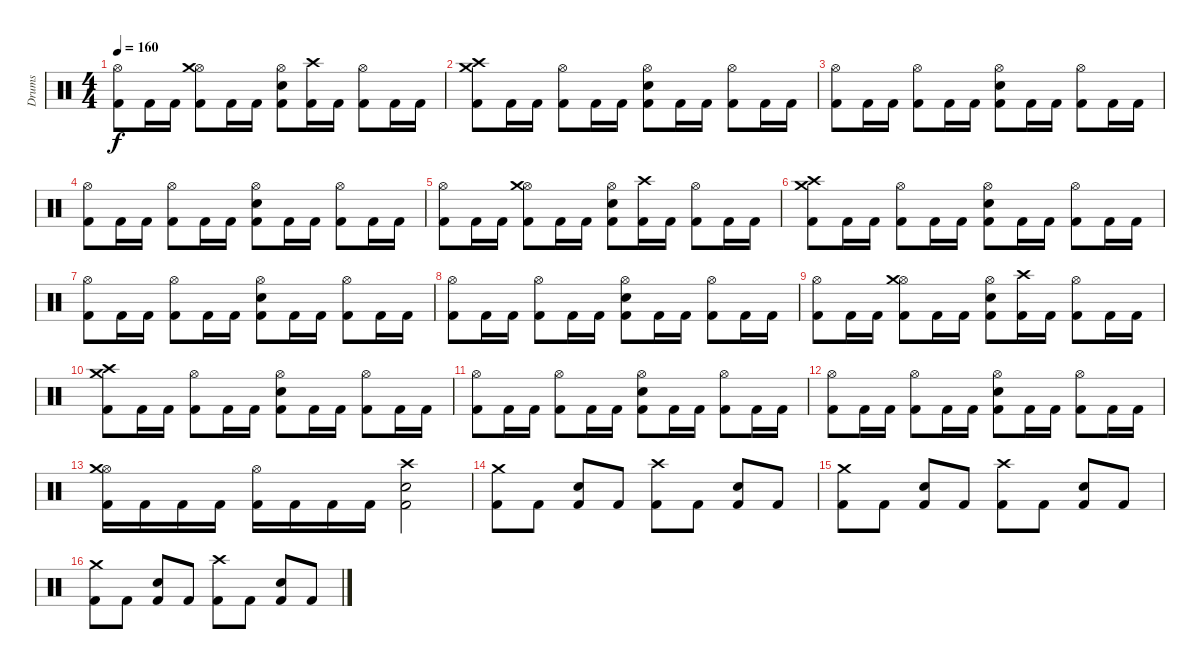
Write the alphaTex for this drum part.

\track ("Drums" "Drums") {instrument percussion}
\staff {score}
\articulation defaults
\ts (4 4)
\tempo 160
\clef neutral
\ks c
("Hi-Hat (open)" "Kick (hit) 2").8{dy f} "Kick (hit) 2".16 "Kick (hit) 2".16 ("Hi-Hat (open)" "Crash medium (hit)" "Kick (hit) 2").8 "Kick (hit) 2".16 "Kick (hit) 2".16 ("Hi-Hat (open)" "Kick (hit) 2" "Snare (hit) 2").8 ("Crash high (hit)" "Kick (hit) 2").16 "Kick (hit) 2".16 ("Hi-Hat (open)" "Kick (hit) 2").8 "Kick (hit) 2".16 "Kick (hit) 2".16 |
("Crash medium (hit)" "Crash high (hit)" "Kick (hit) 2").8 "Kick (hit) 2".16 "Kick (hit) 2".16 ("Hi-Hat (open)" "Kick (hit) 2").8 "Kick (hit) 2".16 "Kick (hit) 2".16 ("Hi-Hat (open)" "Kick (hit) 2" "Snare (hit) 2").8 "Kick (hit) 2".16 "Kick (hit) 2".16 ("Hi-Hat (open)" "Kick (hit) 2").8 "Kick (hit) 2".16 "Kick (hit) 2".16 |
("Hi-Hat (open)" "Kick (hit) 2").8 "Kick (hit) 2".16 "Kick (hit) 2".16 ("Hi-Hat (open)" "Kick (hit) 2").8 "Kick (hit) 2".16 "Kick (hit) 2".16 ("Hi-Hat (open)" "Kick (hit) 2" "Snare (hit) 2").8 "Kick (hit) 2".16 "Kick (hit) 2".16 ("Hi-Hat (open)" "Kick (hit) 2").8 "Kick (hit) 2".16 "Kick (hit) 2".16 |
("Hi-Hat (open)" "Kick (hit) 2").8 "Kick (hit) 2".16 "Kick (hit) 2".16 ("Hi-Hat (open)" "Kick (hit) 2").8 "Kick (hit) 2".16 "Kick (hit) 2".16 ("Hi-Hat (open)" "Kick (hit) 2" "Snare (hit) 2").8 "Kick (hit) 2".16 "Kick (hit) 2".16 ("Hi-Hat (open)" "Kick (hit) 2").8 "Kick (hit) 2".16 "Kick (hit) 2".16 |
("Hi-Hat (open)" "Kick (hit) 2").8 "Kick (hit) 2".16 "Kick (hit) 2".16 ("Hi-Hat (open)" "Crash medium (hit)" "Kick (hit) 2").8 "Kick (hit) 2".16 "Kick (hit) 2".16 ("Hi-Hat (open)" "Kick (hit) 2" "Snare (hit) 2").8 ("Crash high (hit)" "Kick (hit) 2").16 "Kick (hit) 2".16 ("Hi-Hat (open)" "Kick (hit) 2").8 "Kick (hit) 2".16 "Kick (hit) 2".16 |
("Crash medium (hit)" "Crash high (hit)" "Kick (hit) 2").8 "Kick (hit) 2".16 "Kick (hit) 2".16 ("Hi-Hat (open)" "Kick (hit) 2").8 "Kick (hit) 2".16 "Kick (hit) 2".16 ("Hi-Hat (open)" "Kick (hit) 2" "Snare (hit) 2").8 "Kick (hit) 2".16 "Kick (hit) 2".16 ("Hi-Hat (open)" "Kick (hit) 2").8 "Kick (hit) 2".16 "Kick (hit) 2".16 |
("Hi-Hat (open)" "Kick (hit) 2").8 "Kick (hit) 2".16 "Kick (hit) 2".16 ("Hi-Hat (open)" "Kick (hit) 2").8 "Kick (hit) 2".16 "Kick (hit) 2".16 ("Hi-Hat (open)" "Kick (hit) 2" "Snare (hit) 2").8 "Kick (hit) 2".16 "Kick (hit) 2".16 ("Hi-Hat (open)" "Kick (hit) 2").8 "Kick (hit) 2".16 "Kick (hit) 2".16 |
("Hi-Hat (open)" "Kick (hit) 2").8 "Kick (hit) 2".16 "Kick (hit) 2".16 ("Hi-Hat (open)" "Kick (hit) 2").8 "Kick (hit) 2".16 "Kick (hit) 2".16 ("Hi-Hat (open)" "Kick (hit) 2" "Snare (hit) 2").8 "Kick (hit) 2".16 "Kick (hit) 2".16 ("Hi-Hat (open)" "Kick (hit) 2").8 "Kick (hit) 2".16 "Kick (hit) 2".16 |
("Hi-Hat (open)" "Kick (hit) 2").8 "Kick (hit) 2".16 "Kick (hit) 2".16 ("Hi-Hat (open)" "Crash medium (hit)" "Kick (hit) 2").8 "Kick (hit) 2".16 "Kick (hit) 2".16 ("Hi-Hat (open)" "Kick (hit) 2" "Snare (hit) 2").8 ("Crash high (hit)" "Kick (hit) 2").16 "Kick (hit) 2".16 ("Hi-Hat (open)" "Kick (hit) 2").8 "Kick (hit) 2".16 "Kick (hit) 2".16 |
("Crash medium (hit)" "Crash high (hit)" "Kick (hit) 2").8 "Kick (hit) 2".16 "Kick (hit) 2".16 ("Hi-Hat (open)" "Kick (hit) 2").8 "Kick (hit) 2".16 "Kick (hit) 2".16 ("Hi-Hat (open)" "Kick (hit) 2" "Snare (hit) 2").8 "Kick (hit) 2".16 "Kick (hit) 2".16 ("Hi-Hat (open)" "Kick (hit) 2").8 "Kick (hit) 2".16 "Kick (hit) 2".16 |
("Hi-Hat (open)" "Kick (hit) 2").8 "Kick (hit) 2".16 "Kick (hit) 2".16 ("Hi-Hat (open)" "Kick (hit) 2").8 "Kick (hit) 2".16 "Kick (hit) 2".16 ("Hi-Hat (open)" "Kick (hit) 2" "Snare (hit) 2").8 "Kick (hit) 2".16 "Kick (hit) 2".16 ("Hi-Hat (open)" "Kick (hit) 2").8 "Kick (hit) 2".16 "Kick (hit) 2".16 |
("Hi-Hat (open)" "Kick (hit) 2").8 "Kick (hit) 2".16 "Kick (hit) 2".16 ("Hi-Hat (open)" "Kick (hit) 2").8 "Kick (hit) 2".16 "Kick (hit) 2".16 ("Hi-Hat (open)" "Kick (hit) 2" "Snare (hit) 2").8 "Kick (hit) 2".16 "Kick (hit) 2".16 ("Hi-Hat (open)" "Kick (hit) 2").8 "Kick (hit) 2".16 "Kick (hit) 2".16 |
("Hi-Hat (open)" "Crash medium (hit)" "Kick (hit) 2").16 "Kick (hit) 2".16 "Kick (hit) 2".16 "Kick (hit) 2".16 ("Hi-Hat (open)" "Kick (hit) 2").16 "Kick (hit) 2".16 "Kick (hit) 2".16 "Kick (hit) 2".16 ("Crash high (hit)" "Kick (hit) 2" "Snare (hit) 2").2 |
("Crash medium (hit)" "Kick (hit) 2").8 "Kick (hit) 2".8 ("Kick (hit) 2" "Snare (hit) 2").8 "Kick (hit) 2".8 ("Crash high (hit)" "Kick (hit) 2").8 "Kick (hit) 2".8 ("Kick (hit) 2" "Snare (hit) 2").8 "Kick (hit) 2".8 |
("Crash medium (hit)" "Kick (hit) 2").8 "Kick (hit) 2".8 ("Kick (hit) 2" "Snare (hit) 2").8 "Kick (hit) 2".8 ("Crash high (hit)" "Kick (hit) 2").8 "Kick (hit) 2".8 ("Kick (hit) 2" "Snare (hit) 2").8 "Kick (hit) 2".8 |
("Crash medium (hit)" "Kick (hit) 2").8 "Kick (hit) 2".8 ("Kick (hit) 2" "Snare (hit) 2").8 "Kick (hit) 2".8 ("Crash high (hit)" "Kick (hit) 2").8 "Kick (hit) 2".8 ("Kick (hit) 2" "Snare (hit) 2").8 "Kick (hit) 2".8
